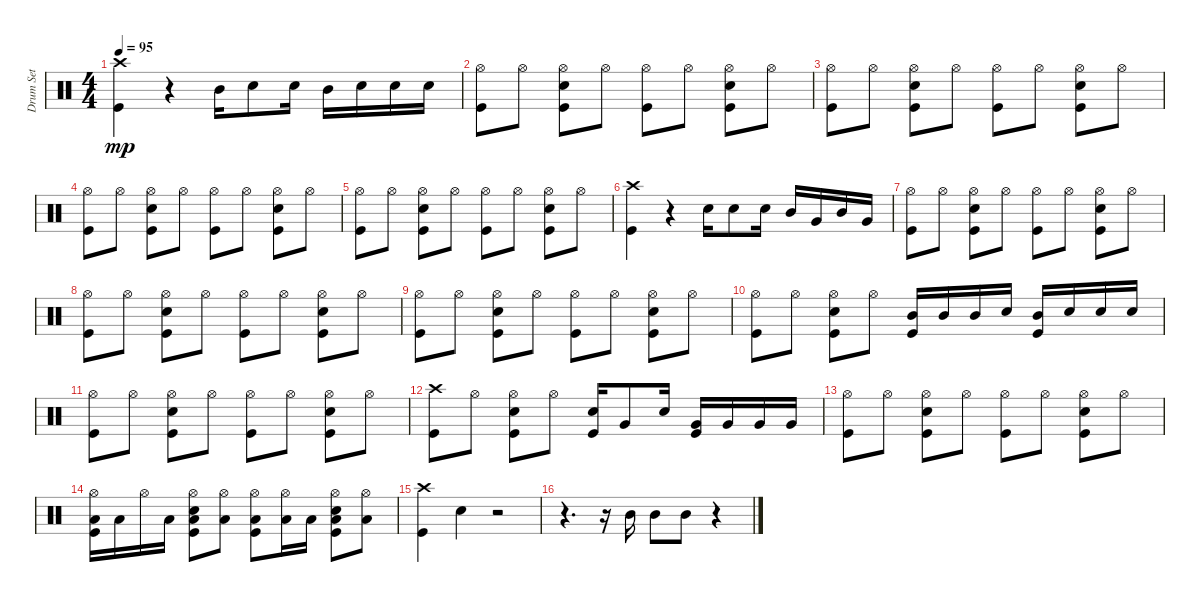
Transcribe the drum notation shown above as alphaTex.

\track ("Drum Set" "Drum Set") {instrument percussion}
\staff {score}
\articulation defaults
\ts (4 4)
\tempo 95
\clef neutral
\ks c
("Kick (hit)" "Crash high (hit)").4{dy mp} r.4 "Mid Tom (hit)".16 "Snare (hit) 2".8 "Snare (hit) 2".16 "Mid Tom (hit)".16 "Snare (hit) 2".16 "Snare (hit) 2".16 "Snare (hit) 2".16 |
("Kick (hit)" "Hi-Hat (open)").8 "Hi-Hat (open)".8 ("Kick (hit)" "Snare (hit) 2" "Hi-Hat (open)").8 "Hi-Hat (open)".8 ("Kick (hit)" "Hi-Hat (open)").8 "Hi-Hat (open)".8 ("Kick (hit)" "Snare (hit) 2" "Hi-Hat (open)").8 "Hi-Hat (open)".8 |
("Kick (hit)" "Hi-Hat (open)").8 "Hi-Hat (open)".8 ("Kick (hit)" "Snare (hit) 2" "Hi-Hat (open)").8 "Hi-Hat (open)".8 ("Kick (hit)" "Hi-Hat (open)").8 "Hi-Hat (open)".8 ("Kick (hit)" "Snare (hit) 2" "Hi-Hat (open)").8 "Hi-Hat (open)".8 |
("Kick (hit)" "Hi-Hat (open)").8 "Hi-Hat (open)".8 ("Kick (hit)" "Snare (hit) 2" "Hi-Hat (open)").8 "Hi-Hat (open)".8 ("Kick (hit)" "Hi-Hat (open)").8 "Hi-Hat (open)".8 ("Kick (hit)" "Snare (hit) 2" "Hi-Hat (open)").8 "Hi-Hat (open)".8 |
("Kick (hit)" "Hi-Hat (open)").8 "Hi-Hat (open)".8 ("Kick (hit)" "Snare (hit) 2" "Hi-Hat (open)").8 "Hi-Hat (open)".8 ("Kick (hit)" "Hi-Hat (open)").8 "Hi-Hat (open)".8 ("Kick (hit)" "Snare (hit) 2" "Hi-Hat (open)").8 "Hi-Hat (open)".8 |
("Kick (hit)" "Crash high (hit)").4 r.4 "Snare (hit) 2".16 "Snare (hit) 2".8 "Snare (hit) 2".16 "Mid Tom (hit)".16 "Very Low Tom (hit)".16 "Mid Tom (hit)".16 "Very Low Tom (hit)".16 |
("Kick (hit)" "Hi-Hat (open)").8 "Hi-Hat (open)".8 ("Kick (hit)" "Snare (hit) 2" "Hi-Hat (open)").8 "Hi-Hat (open)".8 ("Kick (hit)" "Hi-Hat (open)").8 "Hi-Hat (open)".8 ("Kick (hit)" "Snare (hit) 2" "Hi-Hat (open)").8 "Hi-Hat (open)".8 |
("Kick (hit)" "Hi-Hat (open)").8 "Hi-Hat (open)".8 ("Kick (hit)" "Snare (hit) 2" "Hi-Hat (open)").8 "Hi-Hat (open)".8 ("Kick (hit)" "Hi-Hat (open)").8 "Hi-Hat (open)".8 ("Kick (hit)" "Snare (hit) 2" "Hi-Hat (open)").8 "Hi-Hat (open)".8 |
("Kick (hit)" "Hi-Hat (open)").8 "Hi-Hat (open)".8 ("Kick (hit)" "Snare (hit) 2" "Hi-Hat (open)").8 "Hi-Hat (open)".8 ("Kick (hit)" "Hi-Hat (open)").8 "Hi-Hat (open)".8 ("Kick (hit)" "Snare (hit) 2" "Hi-Hat (open)").8 "Hi-Hat (open)".8 |
("Kick (hit)" "Hi-Hat (open)").8 "Hi-Hat (open)".8 ("Kick (hit)" "Snare (hit) 2" "Hi-Hat (open)").8 "Hi-Hat (open)".8 ("Kick (hit)" "Mid Tom (hit)").16 "Mid Tom (hit)".16 "Mid Tom (hit)".16 "Snare (hit) 2".16 ("Kick (hit)" "Mid Tom (hit)").16 "Snare (hit) 2".16 "Snare (hit) 2".16 "Snare (hit) 2".16 |
("Kick (hit)" "Hi-Hat (open)").8 "Hi-Hat (open)".8 ("Kick (hit)" "Snare (hit) 2" "Hi-Hat (open)").8 "Hi-Hat (open)".8 ("Kick (hit)" "Hi-Hat (open)").8 "Hi-Hat (open)".8 ("Kick (hit)" "Snare (hit) 2" "Hi-Hat (open)").8 "Hi-Hat (open)".8 |
("Kick (hit)" "Crash high (hit)").8 "Hi-Hat (open)".8 ("Kick (hit)" "Snare (hit) 2" "Hi-Hat (open)").8 "Hi-Hat (open)".8 ("Kick (hit)" "Snare (hit) 2").16 "Very Low Tom (hit)".8 "Snare (hit) 2".16 ("Kick (hit)" "Very Low Tom (hit)").16 "Very Low Tom (hit)".16 "Very Low Tom (hit)".16 "Very Low Tom (hit)".16 |
("Kick (hit)" "Hi-Hat (open)").8 "Hi-Hat (open)".8 ("Kick (hit)" "Snare (hit) 2" "Hi-Hat (open)").8 "Hi-Hat (open)".8 ("Kick (hit)" "Hi-Hat (open)").8 "Hi-Hat (open)".8 ("Kick (hit)" "Snare (hit) 2" "Hi-Hat (open)").8 "Hi-Hat (open)".8 |
("Kick (hit)" "Hi-Hat (open)" "Low Floor Tom (hit)").16 "Low Floor Tom (hit)".16 "Hi-Hat (open)".16 "Low Floor Tom (hit)".16 ("Kick (hit)" "Low Floor Tom (hit)" "Snare (hit) 2" "Hi-Hat (open)").8 ("Hi-Hat (open)" "Low Floor Tom (hit)").8 ("Kick (hit)" "Hi-Hat (open)" "Low Floor Tom (hit)").8 ("Low Floor Tom (hit)" "Hi-Hat (open)").16 "Low Floor Tom (hit)".16 ("Kick (hit)" "Low Floor Tom (hit)" "Hi-Hat (open)" "Snare (hit) 2").8 ("Low Floor Tom (hit)" "Hi-Hat (open)").8 |
("Kick (hit)" "Crash high (hit)").4 "Snare (hit) 2".4 r.2 |
r.4{d} r.16 "Mid Tom (hit)".16 "Mid Tom (hit)".8 "Mid Tom (hit)".8 r.4
